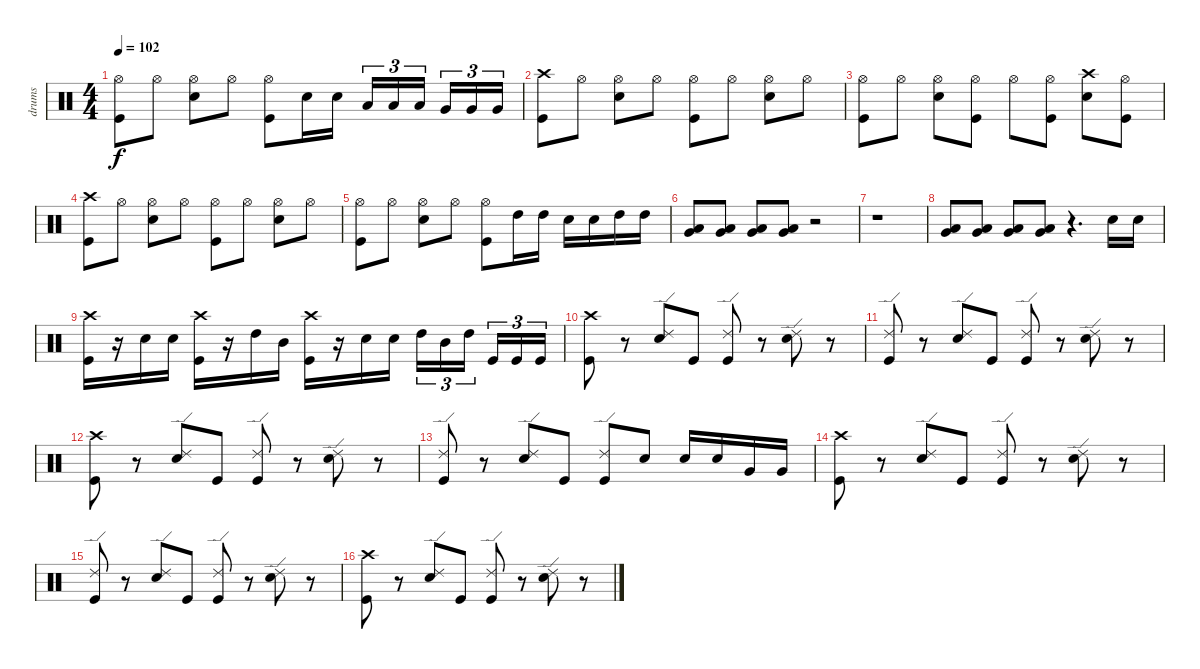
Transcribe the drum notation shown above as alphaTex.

\track ("drums" "drums") {instrument percussion}
\staff {score}
\articulation defaults
\ts (4 4)
\tempo 102
\clef neutral
\ks c
("Hi-Hat (open)" "Kick (hit)").8{dy f} "Hi-Hat (open)".8 ("Hi-Hat (open)" "Snare (hit) 2").8 "Hi-Hat (open)".8 ("Kick (hit)" "Hi-Hat (open)").8 "Snare (hit) 2".16 "Snare (hit) 2".16 "Low Tom (hit)".16{tu (3 2)} "Low Tom (hit)".16{tu (3 2)} "Low Tom (hit)".16{tu (3 2)} "Very Low Tom (hit)".16{tu (3 2)} "Very Low Tom (hit)".16{tu (3 2)} "Very Low Tom (hit)".16{tu (3 2)} |
("Crash high (hit)" "Kick (hit)").8 "Hi-Hat (open)".8 ("Hi-Hat (open)" "Snare (hit) 2").8 "Hi-Hat (open)".8 ("Hi-Hat (open)" "Kick (hit)").8 "Hi-Hat (open)".8 ("Hi-Hat (open)" "Snare (hit) 2").8 "Hi-Hat (open)".8 |
("Hi-Hat (open)" "Kick (hit)").8 "Hi-Hat (open)".8 ("Hi-Hat (open)" "Snare (hit) 2").8 ("Hi-Hat (open)" "Kick (hit)").8 "Hi-Hat (open)".8 ("Kick (hit)" "Hi-Hat (open)").8 ("Crash high (hit)" "Snare (hit) 2").8 ("Kick (hit)" "Hi-Hat (open)").8 |
("Crash high (hit)" "Kick (hit)").8 "Hi-Hat (open)".8 ("Hi-Hat (open)" "Snare (hit) 2").8 "Hi-Hat (open)".8 ("Hi-Hat (open)" "Kick (hit)").8 "Hi-Hat (open)".8 ("Hi-Hat (open)" "Snare (hit) 2").8 "Hi-Hat (open)".8 |
("Hi-Hat (open)" "Kick (hit)").8 "Hi-Hat (open)".8 ("Hi-Hat (open)" "Snare (hit) 2").8 "Hi-Hat (open)".8 ("Kick (hit)" "Hi-Hat (open)").8 "High Tom (hit)".16 "High Tom (hit)".16 "Snare (hit) 2".16 "Snare (hit) 2".16 "High Tom (hit)".16 "High Tom (hit)".16 |
("Low Tom (hit)" "Very Low Tom (hit)").8 ("Low Tom (hit)" "Very Low Tom (hit)").8 ("Low Tom (hit)" "Very Low Tom (hit)").8 ("Low Tom (hit)" "Very Low Tom (hit)").8 r.2 |
r.1 |
("Low Tom (hit)" "Very Low Tom (hit)").8 ("Low Tom (hit)" "Very Low Tom (hit)").8 ("Low Tom (hit)" "Very Low Tom (hit)").8 ("Low Tom (hit)" "Very Low Tom (hit)").8 r.4{d} "Snare (hit) 2".16 "Snare (hit) 2".16 |
("Crash high (hit)" "Kick (hit)").16 r.16 "Snare (hit) 2".16 "Snare (hit) 2".16 ("Crash high (hit)" "Kick (hit)").16 r.16 "High Tom (hit)".16 "Mid Tom (hit)".16 ("Crash high (hit)" "Kick (hit)").16 r.16 "Snare (hit) 2".16 "Snare (hit) 2".16 "High Tom (hit)".16{tu (3 2)} "Mid Tom (hit)".16{tu (3 2)} "High Tom (hit)".16{tu (3 2)} "Kick (hit)".16{tu (3 2)} "Kick (hit)".16{tu (3 2)} "Kick (hit)".16{tu (3 2)} |
("Crash high (hit)" "Kick (hit)").8 r.8 ("Ride (edge) 2" "Snare (hit) 2").8 "Kick (hit)".8 ("Ride (edge) 2" "Kick (hit)").8 r.8 ("Ride (edge) 2" "Snare (hit) 2").8 r.8 |
("Ride (edge) 2" "Kick (hit)").8 r.8 ("Ride (edge) 2" "Snare (hit) 2").8 "Kick (hit)".8 ("Ride (edge) 2" "Kick (hit)").8 r.8 ("Ride (edge) 2" "Snare (hit) 2").8 r.8 |
("Crash high (hit)" "Kick (hit)").8 r.8 ("Ride (edge) 2" "Snare (hit) 2").8 "Kick (hit)".8 ("Ride (edge) 2" "Kick (hit)").8 r.8 ("Ride (edge) 2" "Snare (hit) 2").8 r.8 |
("Ride (edge) 2" "Kick (hit)").8 r.8 ("Ride (edge) 2" "Snare (hit) 2").8 "Kick (hit)".8 ("Ride (edge) 2" "Kick (hit)").8 "Snare (hit) 2".8 "Snare (hit) 2".16 "Snare (hit) 2".16 "Very Low Tom (hit)".16 "Very Low Tom (hit)".16 |
("Crash high (hit)" "Kick (hit)").8 r.8 ("Ride (edge) 2" "Snare (hit) 2").8 "Kick (hit)".8 ("Ride (edge) 2" "Kick (hit)").8 r.8 ("Ride (edge) 2" "Snare (hit) 2").8 r.8 |
("Ride (edge) 2" "Kick (hit)").8 r.8 ("Ride (edge) 2" "Snare (hit) 2").8 "Kick (hit)".8 ("Ride (edge) 2" "Kick (hit)").8 r.8 ("Ride (edge) 2" "Snare (hit) 2").8 r.8 |
("Crash high (hit)" "Kick (hit)").8 r.8 ("Ride (edge) 2" "Snare (hit) 2").8 "Kick (hit)".8 ("Ride (edge) 2" "Kick (hit)").8 r.8 ("Ride (edge) 2" "Snare (hit) 2").8 r.8
